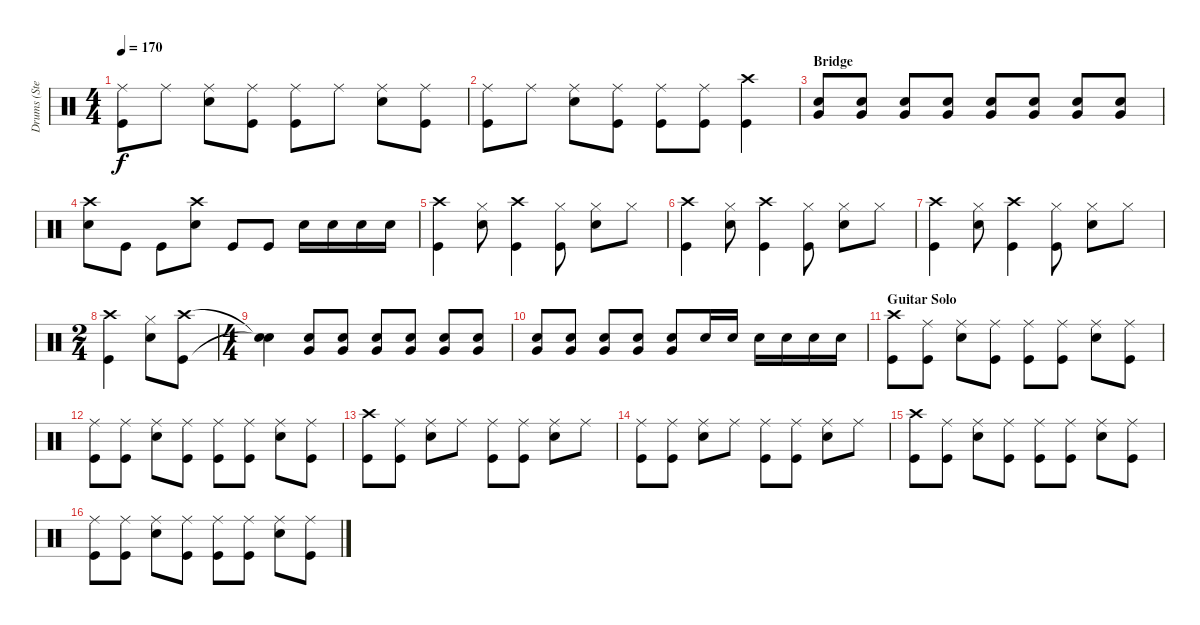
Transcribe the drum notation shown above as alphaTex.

\track ("Drums (Steven)" "Drums (Ste") {instrument percussion}
\staff {score}
\articulation defaults
\ts (4 4)
\tempo 170
\clef neutral
\ks c
("Ride (middle)" "Kick (hit)").8{dy f} "Ride (middle)".8 ("Ride (middle)" "Snare (hit) 2").8 ("Ride (middle)" "Kick (hit)").8 ("Ride (middle)" "Kick (hit)").8 "Ride (middle)".8 ("Ride (middle)" "Snare (hit) 2").8 ("Ride (middle)" "Kick (hit)").8 |
("Ride (middle)" "Kick (hit)").8 "Ride (middle)".8 ("Ride (middle)" "Snare (hit) 2").8 ("Ride (middle)" "Kick (hit)").8 ("Ride (middle)" "Kick (hit)").8 ("Ride (middle)" "Kick (hit)").8 ("Crash high (hit)" "Kick (hit)").4 |
\section ("" "Bridge")
("Snare (hit) 2" "Very Low Tom (hit)").8 ("Snare (hit) 2" "Very Low Tom (hit)").8 ("Snare (hit) 2" "Very Low Tom (hit)").8 ("Snare (hit) 2" "Very Low Tom (hit)").8 ("Snare (hit) 2" "Very Low Tom (hit)").8 ("Snare (hit) 2" "Very Low Tom (hit)").8 ("Snare (hit) 2" "Very Low Tom (hit)").8 ("Snare (hit) 2" "Very Low Tom (hit)").8 |
("Crash high (hit)" "Snare (hit) 2").8 "Kick (hit)".8 "Kick (hit)".8 ("Crash high (hit)" "Snare (hit) 2").8 "Kick (hit)".8 "Kick (hit)".8 "Snare (hit) 2".16 "Snare (hit) 2".16 "Snare (hit) 2".16 "Snare (hit) 2".16 |
("Crash high (hit)" "Kick (hit)").4 ("Hi-Hat (closed)" "Snare (hit) 2").8 ("Crash high (hit)" "Kick (hit)").4 ("Hi-Hat (closed)" "Kick (hit)").8 ("Hi-Hat (closed)" "Snare (hit) 2").8 "Hi-Hat (closed)".8 |
("Crash high (hit)" "Kick (hit)").4 ("Hi-Hat (closed)" "Snare (hit) 2").8 ("Crash high (hit)" "Kick (hit)").4 ("Hi-Hat (closed)" "Kick (hit)").8 ("Hi-Hat (closed)" "Snare (hit) 2").8 "Hi-Hat (closed)".8 |
("Crash high (hit)" "Kick (hit)").4 ("Hi-Hat (closed)" "Snare (hit) 2").8 ("Crash high (hit)" "Kick (hit)").4 ("Hi-Hat (closed)" "Kick (hit)").8 ("Hi-Hat (closed)" "Snare (hit) 2").8 "Hi-Hat (closed)".8 |
\ts (2 4)
("Crash high (hit)" "Kick (hit)").4 ("Hi-Hat (closed)" "Snare (hit) 2").8 ("Crash high (hit)" "Kick (hit)").8 |
\ts (4 4)
("Snare (hit)"{t} "Snare (hit)"{t}).4 ("Snare (hit) 2" "Very Low Tom (hit)").8 ("Snare (hit) 2" "Very Low Tom (hit)").8 ("Snare (hit) 2" "Very Low Tom (hit)").8 ("Snare (hit) 2" "Very Low Tom (hit)").8 ("Snare (hit) 2" "Very Low Tom (hit)").8 ("Snare (hit) 2" "Very Low Tom (hit)").8 |
("Snare (hit) 2" "Very Low Tom (hit)").8 ("Snare (hit) 2" "Very Low Tom (hit)").8 ("Snare (hit) 2" "Very Low Tom (hit)").8 ("Snare (hit) 2" "Very Low Tom (hit)").8 ("Snare (hit) 2" "Very Low Tom (hit)").8 "Snare (hit) 2".16 "Snare (hit) 2".16 "Snare (hit) 2".16 "Snare (hit) 2".16 "Snare (hit) 2".16 "Snare (hit) 2".16 |
\section ("" "Guitar Solo")
("Crash high (hit)" "Kick (hit)").8 ("Ride (middle)" "Kick (hit)").8 ("Ride (middle)" "Snare (hit) 2").8 ("Ride (middle)" "Kick (hit)").8 ("Ride (middle)" "Kick (hit)").8 ("Ride (middle)" "Kick (hit)").8 ("Ride (middle)" "Snare (hit) 2").8 ("Ride (middle)" "Kick (hit)").8 |
("Ride (middle)" "Kick (hit)").8 ("Ride (middle)" "Kick (hit)").8 ("Ride (middle)" "Snare (hit) 2").8 ("Ride (middle)" "Kick (hit)").8 ("Ride (middle)" "Kick (hit)").8 ("Ride (middle)" "Kick (hit)").8 ("Ride (middle)" "Snare (hit) 2").8 ("Ride (middle)" "Kick (hit)").8 |
("Crash high (hit)" "Kick (hit)").8 ("Ride (middle)" "Kick (hit)").8 ("Ride (middle)" "Snare (hit) 2").8 "Ride (middle)".8 ("Ride (middle)" "Kick (hit)").8 ("Ride (middle)" "Kick (hit)").8 ("Ride (middle)" "Snare (hit) 2").8 "Ride (middle)".8 |
("Ride (middle)" "Kick (hit)").8 ("Ride (middle)" "Kick (hit)").8 ("Ride (middle)" "Snare (hit) 2").8 "Ride (middle)".8 ("Ride (middle)" "Kick (hit)").8 ("Ride (middle)" "Kick (hit)").8 ("Ride (middle)" "Snare (hit) 2").8 "Ride (middle)".8 |
("Crash high (hit)" "Kick (hit)").8 ("Ride (middle)" "Kick (hit)").8 ("Ride (middle)" "Snare (hit) 2").8 ("Ride (middle)" "Kick (hit)").8 ("Ride (middle)" "Kick (hit)").8 ("Ride (middle)" "Kick (hit)").8 ("Ride (middle)" "Snare (hit) 2").8 ("Ride (middle)" "Kick (hit)").8 |
("Ride (middle)" "Kick (hit)").8 ("Ride (middle)" "Kick (hit)").8 ("Ride (middle)" "Snare (hit) 2").8 ("Ride (middle)" "Kick (hit)").8 ("Ride (middle)" "Kick (hit)").8 ("Ride (middle)" "Kick (hit)").8 ("Ride (middle)" "Snare (hit) 2").8 ("Ride (middle)" "Kick (hit)").8
